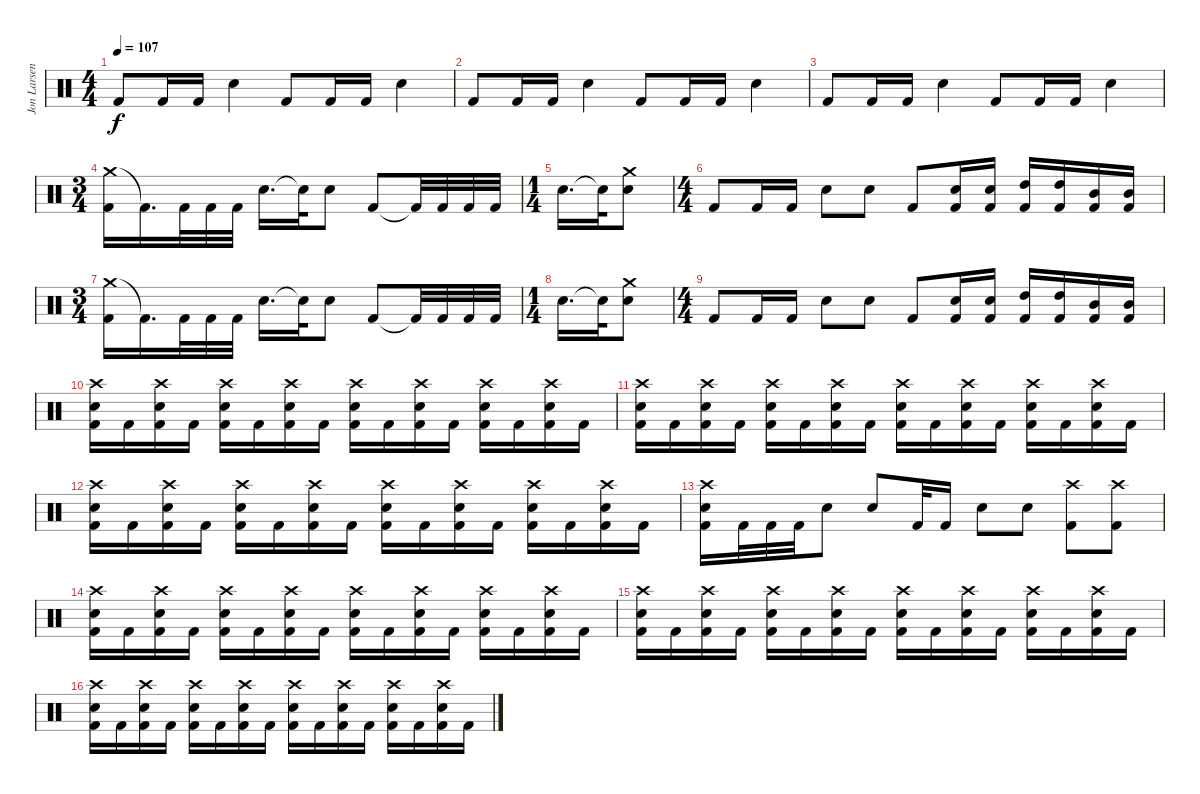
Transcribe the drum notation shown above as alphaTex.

\track ("Jon Larsen (Drums)" "Jon Larsen") {instrument percussion}
\staff {score}
\articulation defaults
\ts (4 4)
\tempo 107
\clef neutral
\ks c "Kick (hit) 2".8{dy f} "Kick (hit) 2".16 "Kick (hit) 2".16 "Electric Snare (hit)".4 "Kick (hit) 2".8 "Kick (hit) 2".16 "Kick (hit) 2".16 "Electric Snare (hit)".4
|
"Kick (hit) 2".8 "Kick (hit) 2".16 "Kick (hit) 2".16 "Electric Snare (hit)".4 "Kick (hit) 2".8 "Kick (hit) 2".16 "Kick (hit) 2".16 "Electric Snare (hit)".4 |
"Kick (hit) 2".8 "Kick (hit) 2".16 "Kick (hit) 2".16 "Electric Snare (hit)".4 "Kick (hit) 2".8 "Kick (hit) 2".16 "Kick (hit) 2".16 "Electric Snare (hit)".4 |
\ts (3 4)
("Crash medium (hit)" "Kick (hit) 2").16 "Kick (hit) 2"{t}.16{d} "Kick (hit) 2".32 "Kick (hit) 2".32 "Kick (hit) 2".32 "Electric Snare (hit)".16{d} "Electric Snare (hit)"{t}.32 "Electric Snare (hit)".8 "Kick (hit) 2".8 "Kick (hit) 2"{t}.32 "Kick (hit) 2".32 "Kick (hit) 2".32 "Kick (hit) 2".32 |
\ts (1 4)
"Electric Snare (hit)".16{d} "Electric Snare (hit)"{t}.32 ("Crash medium (hit)" "Electric Snare (hit)").8 |
\ts (4 4)
"Kick (hit) 2".8 "Kick (hit) 2".16 "Kick (hit) 2".16 "Electric Snare (hit)".8 "Electric Snare (hit)".8 "Kick (hit) 2".8 ("Kick (hit) 2" "Electric Snare (hit)").16 ("Kick (hit) 2" "Electric Snare (hit)").16 ("Kick (hit) 2" "High Tom (hit)").16 ("Kick (hit) 2" "High Tom (hit)").16 ("Kick (hit) 2" "Mid Tom (hit)").16 ("Kick (hit) 2" "Mid Tom (hit)").16 |
\ts (3 4)
("Crash medium (hit)" "Kick (hit) 2").16 "Kick (hit) 2"{t}.16{d} "Kick (hit) 2".32 "Kick (hit) 2".32 "Kick (hit) 2".32 "Electric Snare (hit)".16{d} "Electric Snare (hit)"{t}.32 "Electric Snare (hit)".8 "Kick (hit) 2".8 "Kick (hit) 2"{t}.32 "Kick (hit) 2".32 "Kick (hit) 2".32 "Kick (hit) 2".32 |
\ts (1 4)
"Electric Snare (hit)".16{d} "Electric Snare (hit)"{t}.32 ("Crash medium (hit)" "Electric Snare (hit)").8 |
\ts (4 4)
"Kick (hit) 2".8 "Kick (hit) 2".16 "Kick (hit) 2".16 "Electric Snare (hit)".8 "Electric Snare (hit)".8 "Kick (hit) 2".8 ("Kick (hit) 2" "Electric Snare (hit)").16 ("Kick (hit) 2" "Electric Snare (hit)").16 ("Kick (hit) 2" "High Tom (hit)").16 ("Kick (hit) 2" "High Tom (hit)").16 ("Kick (hit) 2" "Mid Tom (hit)").16 ("Kick (hit) 2" "Mid Tom (hit)").16 |
("Crash high (hit)" "Electric Snare (hit)" "Kick (hit) 2").16 "Kick (hit) 2".16 ("Crash high (hit)" "Electric Snare (hit)" "Kick (hit) 2").16 "Kick (hit) 2".16 ("Crash high (hit)" "Electric Snare (hit)" "Kick (hit) 2").16 "Kick (hit) 2".16 ("Crash high (hit)" "Electric Snare (hit)" "Kick (hit) 2").16 "Kick (hit) 2".16 ("Crash high (hit)" "Electric Snare (hit)" "Kick (hit) 2").16 "Kick (hit) 2".16 ("Crash high (hit)" "Electric Snare (hit)" "Kick (hit) 2").16 "Kick (hit) 2".16 ("Crash high (hit)" "Electric Snare (hit)" "Kick (hit) 2").16 "Kick (hit) 2".16 ("Crash high (hit)" "Electric Snare (hit)" "Kick (hit) 2").16 "Kick (hit) 2".16 |
("Crash high (hit)" "Electric Snare (hit)" "Kick (hit) 2").16 "Kick (hit) 2".16 ("Crash high (hit)" "Electric Snare (hit)" "Kick (hit) 2").16 "Kick (hit) 2".16 ("Crash high (hit)" "Electric Snare (hit)" "Kick (hit) 2").16 "Kick (hit) 2".16 ("Crash high (hit)" "Electric Snare (hit)" "Kick (hit) 2").16 "Kick (hit) 2".16 ("Crash high (hit)" "Electric Snare (hit)" "Kick (hit) 2").16 "Kick (hit) 2".16 ("Crash high (hit)" "Electric Snare (hit)" "Kick (hit) 2").16 "Kick (hit) 2".16 ("Crash high (hit)" "Electric Snare (hit)" "Kick (hit) 2").16 "Kick (hit) 2".16 ("Crash high (hit)" "Electric Snare (hit)" "Kick (hit) 2").16 "Kick (hit) 2".16 |
("Crash high (hit)" "Electric Snare (hit)" "Kick (hit) 2").16 "Kick (hit) 2".16 ("Crash high (hit)" "Electric Snare (hit)" "Kick (hit) 2").16 "Kick (hit) 2".16 ("Crash high (hit)" "Electric Snare (hit)" "Kick (hit) 2").16 "Kick (hit) 2".16 ("Crash high (hit)" "Electric Snare (hit)" "Kick (hit) 2").16 "Kick (hit) 2".16 ("Crash high (hit)" "Electric Snare (hit)" "Kick (hit) 2").16 "Kick (hit) 2".16 ("Crash high (hit)" "Electric Snare (hit)" "Kick (hit) 2").16 "Kick (hit) 2".16 ("Crash high (hit)" "Electric Snare (hit)" "Kick (hit) 2").16 "Kick (hit) 2".16 ("Crash high (hit)" "Electric Snare (hit)" "Kick (hit) 2").16 "Kick (hit) 2".16 |
("Crash high (hit)" "Electric Snare (hit)" "Kick (hit) 2").16 "Kick (hit) 2".32 "Kick (hit) 2".32 "Kick (hit) 2".32 "Electric Snare (hit)".8 "Electric Snare (hit)".8 "Kick (hit) 2".32 "Kick (hit) 2".16 "Electric Snare (hit)".8 "Electric Snare (hit)".8 ("Crash high (hit)" "Kick (hit) 2").8 ("Crash high (hit)" "Kick (hit) 2").8 |
("Crash high (hit)" "Electric Snare (hit)" "Kick (hit) 2").16 "Kick (hit) 2".16 ("Crash high (hit)" "Electric Snare (hit)" "Kick (hit) 2").16 "Kick (hit) 2".16 ("Crash high (hit)" "Electric Snare (hit)" "Kick (hit) 2").16 "Kick (hit) 2".16 ("Crash high (hit)" "Electric Snare (hit)" "Kick (hit) 2").16 "Kick (hit) 2".16 ("Crash high (hit)" "Electric Snare (hit)" "Kick (hit) 2").16 "Kick (hit) 2".16 ("Crash high (hit)" "Electric Snare (hit)" "Kick (hit) 2").16 "Kick (hit) 2".16 ("Crash high (hit)" "Electric Snare (hit)" "Kick (hit) 2").16 "Kick (hit) 2".16 ("Crash high (hit)" "Electric Snare (hit)" "Kick (hit) 2").16 "Kick (hit) 2".16 |
("Crash high (hit)" "Electric Snare (hit)" "Kick (hit) 2").16 "Kick (hit) 2".16 ("Crash high (hit)" "Electric Snare (hit)" "Kick (hit) 2").16 "Kick (hit) 2".16 ("Crash high (hit)" "Electric Snare (hit)" "Kick (hit) 2").16 "Kick (hit) 2".16 ("Crash high (hit)" "Electric Snare (hit)" "Kick (hit) 2").16 "Kick (hit) 2".16 ("Crash high (hit)" "Electric Snare (hit)" "Kick (hit) 2").16 "Kick (hit) 2".16 ("Crash high (hit)" "Electric Snare (hit)" "Kick (hit) 2").16 "Kick (hit) 2".16 ("Crash high (hit)" "Electric Snare (hit)" "Kick (hit) 2").16 "Kick (hit) 2".16 ("Crash high (hit)" "Electric Snare (hit)" "Kick (hit) 2").16 "Kick (hit) 2".16 |
("Crash high (hit)" "Electric Snare (hit)" "Kick (hit) 2").16 "Kick (hit) 2".16 ("Crash high (hit)" "Electric Snare (hit)" "Kick (hit) 2").16 "Kick (hit) 2".16 ("Crash high (hit)" "Electric Snare (hit)" "Kick (hit) 2").16 "Kick (hit) 2".16 ("Crash high (hit)" "Electric Snare (hit)" "Kick (hit) 2").16 "Kick (hit) 2".16 ("Crash high (hit)" "Electric Snare (hit)" "Kick (hit) 2").16 "Kick (hit) 2".16 ("Crash high (hit)" "Electric Snare (hit)" "Kick (hit) 2").16 "Kick (hit) 2".16 ("Crash high (hit)" "Electric Snare (hit)" "Kick (hit) 2").16 "Kick (hit) 2".16 ("Crash high (hit)" "Electric Snare (hit)" "Kick (hit) 2").16 "Kick (hit) 2".16
